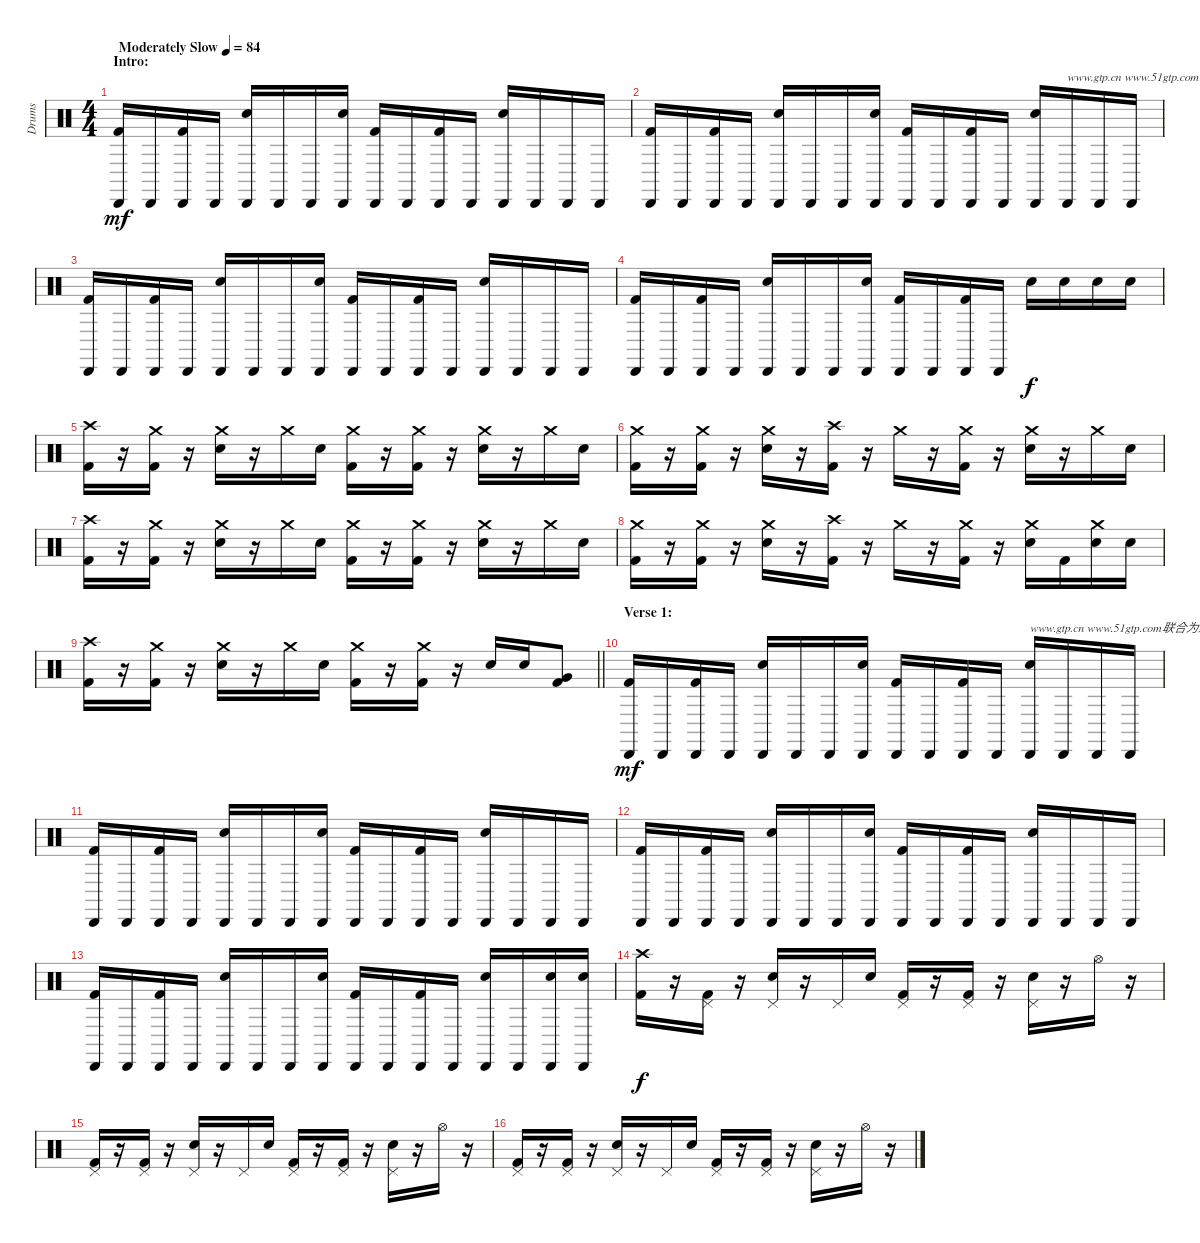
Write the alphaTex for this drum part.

\track ("Drums" "Drums") {instrument percussion}
\staff {score}
\articulation defaults
\ts (4 4)
\section ("" "Intro:")
\tempo (84 "Moderately Slow")
\clef neutral
\ks c
("Cabasa (hit)" "Kick (hit) 2").16{dy mf} "Cabasa (hit)".16 ("Cabasa (hit)" "Kick (hit) 2").16 "Cabasa (hit)".16 ("Cabasa (hit)" "Electric Snare (hit)").16 "Cabasa (hit)".16 "Cabasa (hit)".16 ("Cabasa (hit)" "Electric Snare (hit)").16 ("Cabasa (hit)" "Kick (hit) 2").16 "Cabasa (hit)".16 ("Cabasa (hit)" "Kick (hit) 2").16 "Cabasa (hit)".16 ("Cabasa (hit)" "Electric Snare (hit)").16 "Cabasa (hit)".16 "Cabasa (hit)".16 "Cabasa (hit)".16 |
("Cabasa (hit)" "Kick (hit) 2").16 "Cabasa (hit)".16 ("Cabasa (hit)" "Kick (hit) 2").16 "Cabasa (hit)".16 ("Cabasa (hit)" "Electric Snare (hit)").16 "Cabasa (hit)".16 "Cabasa (hit)".16 ("Cabasa (hit)" "Electric Snare (hit)").16 ("Cabasa (hit)" "Kick (hit) 2").16 "Cabasa (hit)".16 ("Cabasa (hit)" "Kick (hit) 2").16 "Cabasa (hit)".16 ("Cabasa (hit)" "Electric Snare (hit)").16 "Cabasa (hit)".16{txt "www.gtp.cn www.51gtp.com联合为您提供优秀的GTP!"} "Cabasa (hit)".16 "Cabasa (hit)".16 |
("Cabasa (hit)" "Kick (hit) 2").16 "Cabasa (hit)".16 ("Cabasa (hit)" "Kick (hit) 2").16 "Cabasa (hit)".16 ("Cabasa (hit)" "Electric Snare (hit)").16 "Cabasa (hit)".16 "Cabasa (hit)".16 ("Cabasa (hit)" "Electric Snare (hit)").16 ("Cabasa (hit)" "Kick (hit) 2").16 "Cabasa (hit)".16 ("Cabasa (hit)" "Kick (hit) 2").16 "Cabasa (hit)".16 ("Cabasa (hit)" "Electric Snare (hit)").16 "Cabasa (hit)".16 "Cabasa (hit)".16 "Cabasa (hit)".16 |
("Cabasa (hit)" "Kick (hit) 2").16 "Cabasa (hit)".16 ("Cabasa (hit)" "Kick (hit) 2").16 "Cabasa (hit)".16 ("Cabasa (hit)" "Electric Snare (hit)").16 "Cabasa (hit)".16 "Cabasa (hit)".16 ("Cabasa (hit)" "Electric Snare (hit)").16 ("Cabasa (hit)" "Kick (hit) 2").16 "Cabasa (hit)".16 ("Cabasa (hit)" "Kick (hit) 2").16 "Cabasa (hit)".16 "Electric Snare (hit)".16{dy f} "Electric Snare (hit)".16 "Electric Snare (hit)".16 "Electric Snare (hit)".16 |
("Crash high (hit)" "Kick (hit) 2").16 r.16 ("Crash medium (hit)" "Kick (hit) 2").16 r.16 ("Crash medium (hit)" "Electric Snare (hit)").16 r.16 "Crash medium (hit)".16 "Electric Snare (hit)".16 ("Crash medium (hit)" "Kick (hit) 2").16 r.16 ("Crash medium (hit)" "Kick (hit) 2").16 r.16 ("Crash medium (hit)" "Electric Snare (hit)").16 r.16 "Crash medium (hit)".16 "Electric Snare (hit)".16 |
("Crash medium (hit)" "Kick (hit) 2").16 r.16 ("Crash medium (hit)" "Kick (hit) 2").16 r.16 ("Crash medium (hit)" "Electric Snare (hit)").16 r.16 ("Crash high (hit)" "Kick (hit) 2").16 r.16 "Crash medium (hit)".16 r.16 ("Crash medium (hit)" "Kick (hit) 2").16 r.16 ("Crash medium (hit)" "Electric Snare (hit)").16 r.16 "Crash medium (hit)".16 "Electric Snare (hit)".16 |
("Crash high (hit)" "Kick (hit) 2").16 r.16 ("Crash medium (hit)" "Kick (hit) 2").16 r.16 ("Crash medium (hit)" "Electric Snare (hit)").16 r.16 "Crash medium (hit)".16 "Electric Snare (hit)".16 ("Crash medium (hit)" "Kick (hit) 2").16 r.16 ("Crash medium (hit)" "Kick (hit) 2").16 r.16 ("Crash medium (hit)" "Electric Snare (hit)").16 r.16 "Crash medium (hit)".16 "Electric Snare (hit)".16 |
("Crash medium (hit)" "Kick (hit) 2").16 r.16 ("Crash medium (hit)" "Kick (hit) 2").16 r.16 ("Crash medium (hit)" "Electric Snare (hit)").16 r.16 ("Crash high (hit)" "Kick (hit) 2").16 r.16 "Crash medium (hit)".16 r.16 ("Crash medium (hit)" "Kick (hit) 2").16 r.16 ("Crash medium (hit)" "Electric Snare (hit)").16 "Kick (hit) 2".16 ("Crash medium (hit)" "Electric Snare (hit)").16 "Electric Snare (hit)".16 |
\barLineRight lightlight
("Crash high (hit)" "Kick (hit) 2").16 r.16 ("Crash medium (hit)" "Kick (hit) 2").16 r.16 ("Crash medium (hit)" "Electric Snare (hit)").16 r.16 "Crash medium (hit)".16 "Electric Snare (hit)".16 ("Crash medium (hit)" "Kick (hit) 2").16 r.16 ("Crash medium (hit)" "Kick (hit) 2").16 r.16 "Electric Snare (hit)".16 "Electric Snare (hit)".16 ("Very Low Tom (hit)" "Kick (hit) 2").8 |
\section ("" "Verse 1:")
("Cabasa (hit)" "Kick (hit) 2").16{dy mf} "Cabasa (hit)".16 ("Cabasa (hit)" "Kick (hit) 2").16 "Cabasa (hit)".16 ("Cabasa (hit)" "Electric Snare (hit)").16 "Cabasa (hit)".16 "Cabasa (hit)".16 ("Cabasa (hit)" "Electric Snare (hit)").16 ("Cabasa (hit)" "Kick (hit) 2").16 "Cabasa (hit)".16 ("Cabasa (hit)" "Kick (hit) 2").16 "Cabasa (hit)".16 ("Cabasa (hit)" "Electric Snare (hit)").16{txt "www.gtp.cn www.51gtp.com联合为您提供优秀的GTP!"} "Cabasa (hit)".16 "Cabasa (hit)".16 "Cabasa (hit)".16 |
("Cabasa (hit)" "Kick (hit) 2").16 "Cabasa (hit)".16 ("Cabasa (hit)" "Kick (hit) 2").16 "Cabasa (hit)".16 ("Cabasa (hit)" "Electric Snare (hit)").16 "Cabasa (hit)".16 "Cabasa (hit)".16 ("Cabasa (hit)" "Electric Snare (hit)").16 ("Cabasa (hit)" "Kick (hit) 2").16 "Cabasa (hit)".16 ("Cabasa (hit)" "Kick (hit) 2").16 "Cabasa (hit)".16 ("Cabasa (hit)" "Electric Snare (hit)").16 "Cabasa (hit)".16 "Cabasa (hit)".16 "Cabasa (hit)".16 |
("Cabasa (hit)" "Kick (hit) 2").16 "Cabasa (hit)".16 ("Cabasa (hit)" "Kick (hit) 2").16 "Cabasa (hit)".16 ("Cabasa (hit)" "Electric Snare (hit)").16 "Cabasa (hit)".16 "Cabasa (hit)".16 ("Cabasa (hit)" "Electric Snare (hit)").16 ("Cabasa (hit)" "Kick (hit) 2").16 "Cabasa (hit)".16 ("Cabasa (hit)" "Kick (hit) 2").16 "Cabasa (hit)".16 ("Cabasa (hit)" "Electric Snare (hit)").16 "Cabasa (hit)".16 "Cabasa (hit)".16 "Cabasa (hit)".16 |
("Cabasa (hit)" "Kick (hit) 2").16 "Cabasa (hit)".16 ("Cabasa (hit)" "Kick (hit) 2").16 "Cabasa (hit)".16 ("Cabasa (hit)" "Electric Snare (hit)").16 "Cabasa (hit)".16 "Cabasa (hit)".16 ("Cabasa (hit)" "Electric Snare (hit)").16 ("Cabasa (hit)" "Kick (hit) 2").16 "Cabasa (hit)".16 ("Cabasa (hit)" "Kick (hit) 2").16 "Cabasa (hit)".16 ("Cabasa (hit)" "Electric Snare (hit)").16 "Cabasa (hit)".16 ("Cabasa (hit)" "Electric Snare (hit)").16 ("Cabasa (hit)" "Electric Snare (hit)").16 |
("Crash high (hit)" "Kick (hit) 2").16{dy f} r.16 ("Pedal Hi-Hat (hit)" "Kick (hit) 2").16 r.16 ("Pedal Hi-Hat (hit)" "Electric Snare (hit)").16 r.16 "Pedal Hi-Hat (hit)".16 "Electric Snare (hit)".16 ("Pedal Hi-Hat (hit)" "Kick (hit) 2").16 r.16 ("Pedal Hi-Hat (hit)" "Kick (hit) 2").16 r.16 ("Pedal Hi-Hat (hit)" "Electric Snare (hit)").16 r.16 "Hi-Hat (open)".16 r.16 |
("Pedal Hi-Hat (hit)" "Kick (hit) 2").16 r.16 ("Pedal Hi-Hat (hit)" "Kick (hit) 2").16 r.16 ("Pedal Hi-Hat (hit)" "Electric Snare (hit)").16 r.16 "Pedal Hi-Hat (hit)".16 "Electric Snare (hit)".16 ("Pedal Hi-Hat (hit)" "Kick (hit) 2").16 r.16 ("Pedal Hi-Hat (hit)" "Kick (hit) 2").16 r.16 ("Pedal Hi-Hat (hit)" "Electric Snare (hit)").16 r.16 "Hi-Hat (open)".16 r.16 |
("Pedal Hi-Hat (hit)" "Kick (hit) 2").16 r.16 ("Pedal Hi-Hat (hit)" "Kick (hit) 2").16 r.16 ("Pedal Hi-Hat (hit)" "Electric Snare (hit)").16 r.16 "Pedal Hi-Hat (hit)".16 "Electric Snare (hit)".16 ("Pedal Hi-Hat (hit)" "Kick (hit) 2").16 r.16 ("Pedal Hi-Hat (hit)" "Kick (hit) 2").16 r.16 ("Pedal Hi-Hat (hit)" "Electric Snare (hit)").16 r.16 "Hi-Hat (open)".16 r.16
